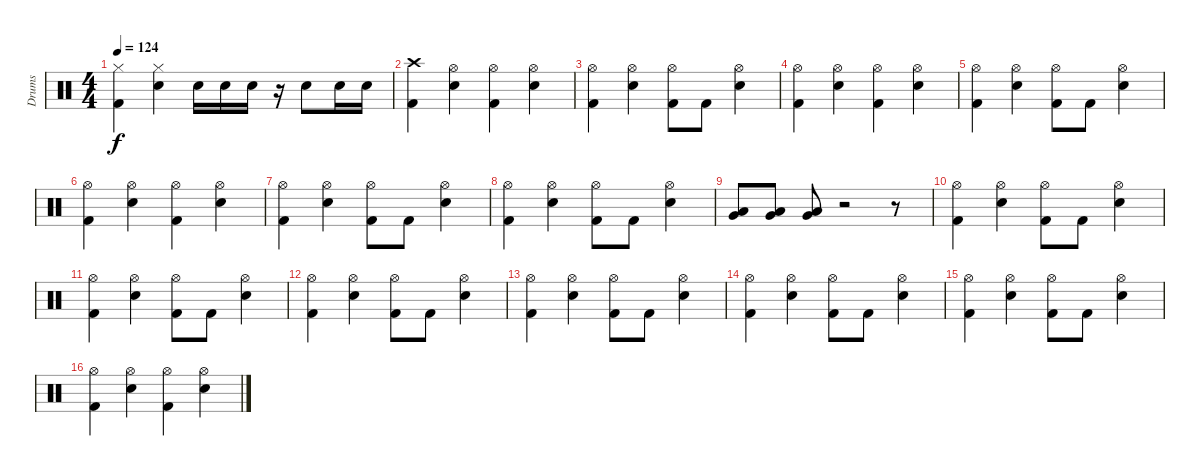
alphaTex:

\track ("Drums" "Drums") {instrument percussion}
\staff {score}
\articulation defaults
\ts (4 4)
\tempo 124
\clef neutral
\ks c
("Hi-Hat (closed)" "Kick (hit) 2").4{dy f} ("Hi-Hat (closed)" "Snare (hit) 2").4 "Snare (hit) 2".16 "Snare (hit) 2".16 "Snare (hit) 2".16 r.16 "Snare (hit) 2".8 "Snare (hit) 2".16 "Snare (hit) 2".16 |
("Crash high (hit)" "Kick (hit) 2").4 ("Hi-Hat (open)" "Snare (hit) 2").4 ("Hi-Hat (open)" "Kick (hit) 2").4 ("Hi-Hat (open)" "Snare (hit) 2").4 |
("Hi-Hat (open)" "Kick (hit) 2").4 ("Hi-Hat (open)" "Snare (hit) 2").4 ("Hi-Hat (open)" "Kick (hit) 2").8 "Kick (hit) 2".8 ("Hi-Hat (open)" "Snare (hit) 2").4 |
("Hi-Hat (open)" "Kick (hit) 2").4 ("Hi-Hat (open)" "Snare (hit) 2").4 ("Hi-Hat (open)" "Kick (hit) 2").4 ("Hi-Hat (open)" "Snare (hit) 2").4 |
("Hi-Hat (open)" "Kick (hit) 2").4 ("Hi-Hat (open)" "Snare (hit) 2").4 ("Hi-Hat (open)" "Kick (hit) 2").8 "Kick (hit) 2".8 ("Hi-Hat (open)" "Snare (hit) 2").4 |
("Hi-Hat (open)" "Kick (hit) 2").4 ("Hi-Hat (open)" "Snare (hit) 2").4 ("Hi-Hat (open)" "Kick (hit) 2").4 ("Hi-Hat (open)" "Snare (hit) 2").4 |
("Hi-Hat (open)" "Kick (hit) 2").4 ("Hi-Hat (open)" "Snare (hit) 2").4 ("Hi-Hat (open)" "Kick (hit) 2").8 "Kick (hit) 2".8 ("Hi-Hat (open)" "Snare (hit) 2").4 |
("Hi-Hat (open)" "Kick (hit) 2").4 ("Hi-Hat (open)" "Snare (hit) 2").4 ("Hi-Hat (open)" "Kick (hit) 2").8 "Kick (hit) 2".8 ("Hi-Hat (open)" "Snare (hit) 2").4 |
("Very Low Tom (hit)" "Low Tom (hit)").8 ("Very Low Tom (hit)" "Low Tom (hit)").8 ("Very Low Tom (hit)" "Low Tom (hit)").8 r.2 r.8 |
("Hi-Hat (open)" "Kick (hit) 2").4 ("Hi-Hat (open)" "Snare (hit) 2").4 ("Hi-Hat (open)" "Kick (hit) 2").8 "Kick (hit) 2".8 ("Hi-Hat (open)" "Snare (hit) 2").4 |
("Hi-Hat (open)" "Kick (hit) 2").4 ("Hi-Hat (open)" "Snare (hit) 2").4 ("Hi-Hat (open)" "Kick (hit) 2").8 "Kick (hit) 2".8 ("Hi-Hat (open)" "Snare (hit) 2").4 |
("Hi-Hat (open)" "Kick (hit) 2").4 ("Hi-Hat (open)" "Snare (hit) 2").4 ("Hi-Hat (open)" "Kick (hit) 2").8 "Kick (hit) 2".8 ("Hi-Hat (open)" "Snare (hit) 2").4 |
("Hi-Hat (open)" "Kick (hit) 2").4 ("Hi-Hat (open)" "Snare (hit) 2").4 ("Hi-Hat (open)" "Kick (hit) 2").8 "Kick (hit) 2".8 ("Hi-Hat (open)" "Snare (hit) 2").4 |
("Hi-Hat (open)" "Kick (hit) 2").4 ("Hi-Hat (open)" "Snare (hit) 2").4 ("Hi-Hat (open)" "Kick (hit) 2").8 "Kick (hit) 2".8 ("Hi-Hat (open)" "Snare (hit) 2").4 |
("Hi-Hat (open)" "Kick (hit) 2").4 ("Hi-Hat (open)" "Snare (hit) 2").4 ("Hi-Hat (open)" "Kick (hit) 2").8 "Kick (hit) 2".8 ("Hi-Hat (open)" "Snare (hit) 2").4 |
("Hi-Hat (open)" "Kick (hit) 2").4 ("Hi-Hat (open)" "Snare (hit) 2").4 ("Hi-Hat (open)" "Kick (hit) 2").4 ("Hi-Hat (open)" "Snare (hit) 2").4
